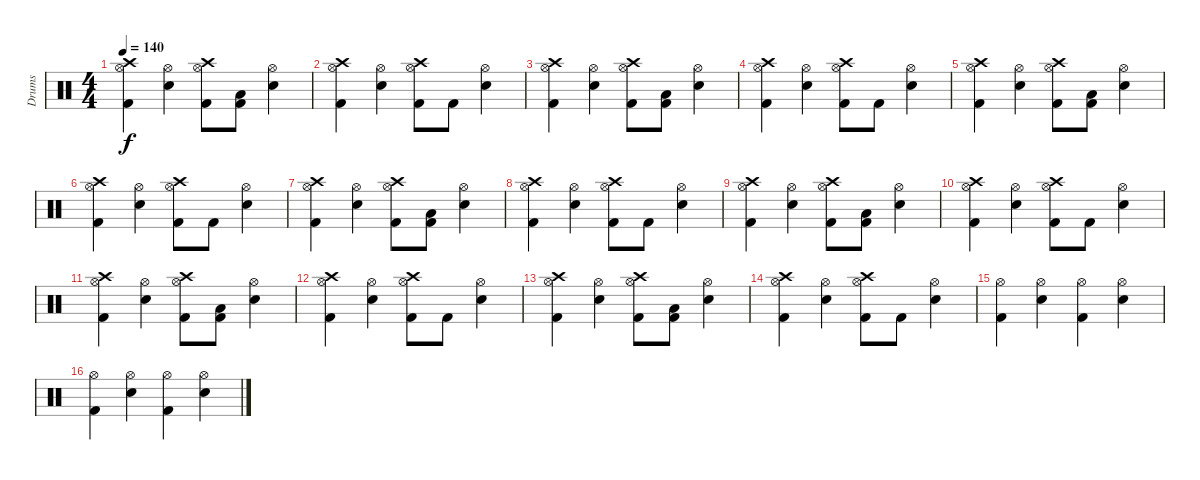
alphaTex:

\track ("Drums" "Drums") {instrument percussion}
\staff {score}
\articulation defaults
\ts (4 4)
\tempo 140
\clef neutral
\ks c
("Hi-Hat (open)" "Crash high (hit)" "Kick (hit) 2").4{dy f} ("Hi-Hat (open)" "Electric Snare (hit)").4 ("Hi-Hat (open)" "Crash high (hit)" "Kick (hit) 2").8 ("Low Tom (hit)" "Kick (hit) 2").8 ("Hi-Hat (open)" "Electric Snare (hit)").4 |
("Hi-Hat (open)" "Crash high (hit)" "Kick (hit) 2").4 ("Hi-Hat (open)" "Electric Snare (hit)").4 ("Hi-Hat (open)" "Crash high (hit)" "Kick (hit) 2").8 "Kick (hit) 2".8 ("Hi-Hat (open)" "Electric Snare (hit)").4 |
("Hi-Hat (open)" "Crash high (hit)" "Kick (hit) 2").4 ("Hi-Hat (open)" "Electric Snare (hit)").4 ("Hi-Hat (open)" "Crash high (hit)" "Kick (hit) 2").8 ("Low Tom (hit)" "Kick (hit) 2").8 ("Hi-Hat (open)" "Electric Snare (hit)").4 |
("Hi-Hat (open)" "Crash high (hit)" "Kick (hit) 2").4 ("Hi-Hat (open)" "Electric Snare (hit)").4 ("Hi-Hat (open)" "Crash high (hit)" "Kick (hit) 2").8 "Kick (hit) 2".8 ("Hi-Hat (open)" "Electric Snare (hit)").4 |
("Hi-Hat (open)" "Crash high (hit)" "Kick (hit) 2").4 ("Hi-Hat (open)" "Electric Snare (hit)").4 ("Hi-Hat (open)" "Crash high (hit)" "Kick (hit) 2").8 ("Low Tom (hit)" "Kick (hit) 2").8 ("Hi-Hat (open)" "Electric Snare (hit)").4 |
("Hi-Hat (open)" "Crash high (hit)" "Kick (hit) 2").4 ("Hi-Hat (open)" "Electric Snare (hit)").4 ("Hi-Hat (open)" "Crash high (hit)" "Kick (hit) 2").8 "Kick (hit) 2".8 ("Hi-Hat (open)" "Electric Snare (hit)").4 |
("Hi-Hat (open)" "Crash high (hit)" "Kick (hit) 2").4 ("Hi-Hat (open)" "Electric Snare (hit)").4 ("Hi-Hat (open)" "Crash high (hit)" "Kick (hit) 2").8 ("Low Tom (hit)" "Kick (hit) 2").8 ("Hi-Hat (open)" "Electric Snare (hit)").4 |
("Hi-Hat (open)" "Crash high (hit)" "Kick (hit) 2").4 ("Hi-Hat (open)" "Electric Snare (hit)").4 ("Hi-Hat (open)" "Crash high (hit)" "Kick (hit) 2").8 "Kick (hit) 2".8 ("Hi-Hat (open)" "Electric Snare (hit)").4 |
("Hi-Hat (open)" "Crash high (hit)" "Kick (hit) 2").4 ("Hi-Hat (open)" "Electric Snare (hit)").4 ("Hi-Hat (open)" "Crash high (hit)" "Kick (hit) 2").8 ("Low Tom (hit)" "Kick (hit) 2").8 ("Hi-Hat (open)" "Electric Snare (hit)").4 |
("Hi-Hat (open)" "Crash high (hit)" "Kick (hit) 2").4 ("Hi-Hat (open)" "Electric Snare (hit)").4 ("Hi-Hat (open)" "Crash high (hit)" "Kick (hit) 2").8 "Kick (hit) 2".8 ("Hi-Hat (open)" "Electric Snare (hit)").4 |
("Hi-Hat (open)" "Crash high (hit)" "Kick (hit) 2").4 ("Hi-Hat (open)" "Electric Snare (hit)").4 ("Hi-Hat (open)" "Crash high (hit)" "Kick (hit) 2").8 ("Low Tom (hit)" "Kick (hit) 2").8 ("Hi-Hat (open)" "Electric Snare (hit)").4 |
("Hi-Hat (open)" "Crash high (hit)" "Kick (hit) 2").4 ("Hi-Hat (open)" "Electric Snare (hit)").4 ("Hi-Hat (open)" "Crash high (hit)" "Kick (hit) 2").8 "Kick (hit) 2".8 ("Hi-Hat (open)" "Electric Snare (hit)").4 |
("Hi-Hat (open)" "Crash high (hit)" "Kick (hit) 2").4 ("Hi-Hat (open)" "Electric Snare (hit)").4 ("Hi-Hat (open)" "Crash high (hit)" "Kick (hit) 2").8 ("Low Tom (hit)" "Kick (hit) 2").8 ("Hi-Hat (open)" "Electric Snare (hit)").4 |
("Hi-Hat (open)" "Crash high (hit)" "Kick (hit) 2").4 ("Hi-Hat (open)" "Electric Snare (hit)").4 ("Hi-Hat (open)" "Crash high (hit)" "Kick (hit) 2").8 "Kick (hit) 2".8 ("Hi-Hat (open)" "Electric Snare (hit)").4 |
("Hi-Hat (open)" "Kick (hit) 2").4 ("Hi-Hat (open)" "Electric Snare (hit)").4 ("Hi-Hat (open)" "Kick (hit) 2").4 ("Hi-Hat (open)" "Electric Snare (hit)").4 |
("Hi-Hat (open)" "Kick (hit) 2").4 ("Hi-Hat (open)" "Electric Snare (hit)").4 ("Hi-Hat (open)" "Kick (hit) 2").4 ("Hi-Hat (open)" "Electric Snare (hit)").4
